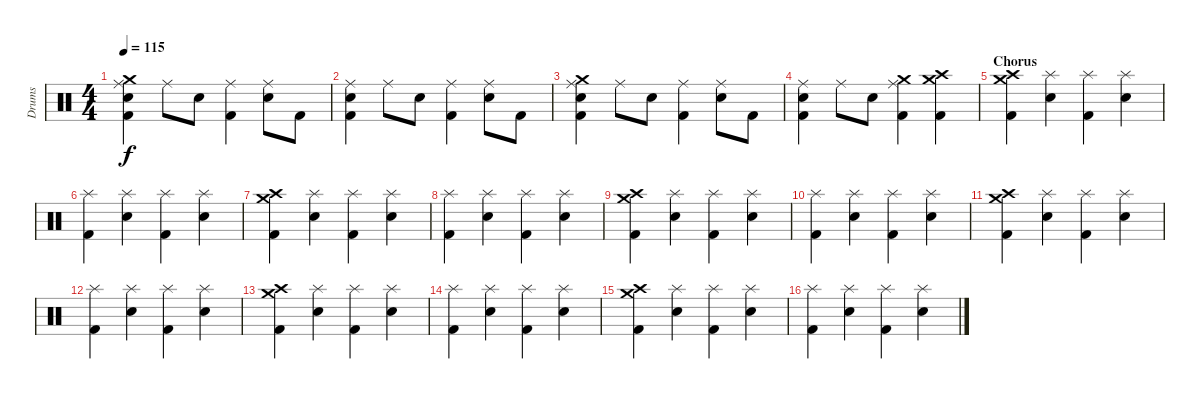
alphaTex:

\track ("Drums" "Drums") {instrument percussion}
\staff {score}
\articulation defaults
\ts (4 4)
\tempo 115
\clef neutral
\ks c
("Ride (middle)" "Crash medium (hit)" "Snare (hit) 2" "Kick (hit) 2").4{dy f} "Ride (middle)".8 "Snare (hit) 2".8 ("Ride (middle)" "Kick (hit) 2").4 ("Ride (middle)" "Snare (hit) 2").8 "Kick (hit) 2".8 |
("Ride (middle)" "Snare (hit) 2" "Kick (hit) 2").4 "Ride (middle)".8 "Snare (hit) 2".8 ("Ride (middle)" "Kick (hit) 2").4 ("Ride (middle)" "Snare (hit) 2").8 "Kick (hit) 2".8 |
("Ride (middle)" "Crash medium (hit)" "Snare (hit) 2" "Kick (hit) 2").4 "Ride (middle)".8 "Snare (hit) 2".8 ("Ride (middle)" "Kick (hit) 2").4 ("Ride (middle)" "Snare (hit) 2").8 "Kick (hit) 2".8 |
("Ride (middle)" "Snare (hit) 2" "Kick (hit) 2").4 "Ride (middle)".8 "Snare (hit) 2".8 ("Ride (middle)" "Crash medium (hit)" "Kick (hit) 2").4 ("Crash medium (hit)" "Crash high (hit)" "Kick (hit) 2").4 |
\section ("" "Chorus")
("Crash high (hit)" "Crash medium (hit)" "Kick (hit) 2").4 ("Splash (hit)" "Snare (hit) 2").4 ("Splash (hit)" "Kick (hit) 2").4 ("Splash (hit)" "Snare (hit) 2").4 |
("Splash (hit)" "Kick (hit) 2").4 ("Splash (hit)" "Snare (hit) 2").4 ("Splash (hit)" "Kick (hit) 2").4 ("Splash (hit)" "Snare (hit) 2").4 |
("Crash high (hit)" "Crash medium (hit)" "Kick (hit) 2").4 ("Splash (hit)" "Snare (hit) 2").4 ("Splash (hit)" "Kick (hit) 2").4 ("Splash (hit)" "Snare (hit) 2").4 |
("Splash (hit)" "Kick (hit) 2").4 ("Splash (hit)" "Snare (hit) 2").4 ("Splash (hit)" "Kick (hit) 2").4 ("Splash (hit)" "Snare (hit) 2").4 |
("Crash high (hit)" "Crash medium (hit)" "Kick (hit) 2").4 ("Splash (hit)" "Snare (hit) 2").4 ("Splash (hit)" "Kick (hit) 2").4 ("Splash (hit)" "Snare (hit) 2").4 |
("Splash (hit)" "Kick (hit) 2").4 ("Splash (hit)" "Snare (hit) 2").4 ("Splash (hit)" "Kick (hit) 2").4 ("Splash (hit)" "Snare (hit) 2").4 |
("Crash high (hit)" "Crash medium (hit)" "Kick (hit) 2").4 ("Splash (hit)" "Snare (hit) 2").4 ("Splash (hit)" "Kick (hit) 2").4 ("Splash (hit)" "Snare (hit) 2").4 |
("Splash (hit)" "Kick (hit) 2").4 ("Splash (hit)" "Snare (hit) 2").4 ("Splash (hit)" "Kick (hit) 2").4 ("Splash (hit)" "Snare (hit) 2").4 |
("Crash high (hit)" "Crash medium (hit)" "Kick (hit) 2").4 ("Splash (hit)" "Snare (hit) 2").4 ("Splash (hit)" "Kick (hit) 2").4 ("Splash (hit)" "Snare (hit) 2").4 |
("Splash (hit)" "Kick (hit) 2").4 ("Splash (hit)" "Snare (hit) 2").4 ("Splash (hit)" "Kick (hit) 2").4 ("Splash (hit)" "Snare (hit) 2").4 |
("Crash high (hit)" "Crash medium (hit)" "Kick (hit) 2").4 ("Splash (hit)" "Snare (hit) 2").4 ("Splash (hit)" "Kick (hit) 2").4 ("Splash (hit)" "Snare (hit) 2").4 |
("Splash (hit)" "Kick (hit) 2").4 ("Splash (hit)" "Snare (hit) 2").4 ("Splash (hit)" "Kick (hit) 2").4 ("Splash (hit)" "Snare (hit) 2").4
